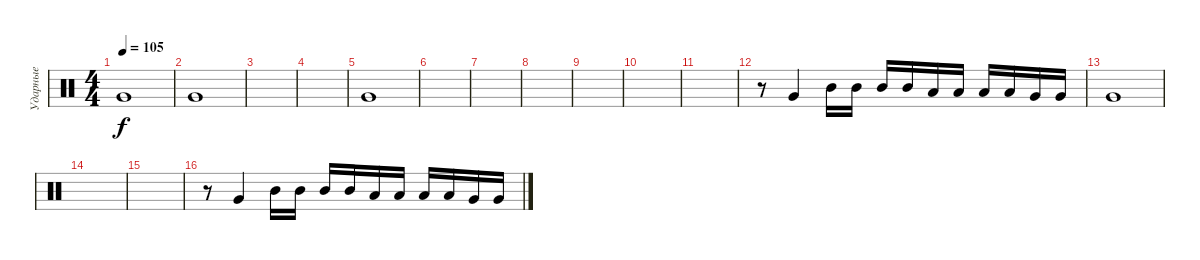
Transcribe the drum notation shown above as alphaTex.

\track ("Ударные" "Ударные") {instrument percussion}
\staff {score}
\articulation defaults
\ts (4 4)
\tempo 105
\clef neutral
\ks c "Very Low Tom (hit)".1{dy f}
|
"Very Low Tom (hit)".1 |
|
|
"Very Low Tom (hit)".1 |
|
|
|
|
|
|
r.8 "Very Low Tom (hit)".4 "Mid Tom (hit)".16 "Mid Tom (hit)".16 "Mid Tom (hit)".16 "Mid Tom (hit)".16 "Low Tom (hit)".16 "Low Tom (hit)".16 "Low Tom (hit)".16 "Low Tom (hit)".16 "Very Low Tom (hit)".16 "Very Low Tom (hit)".16 |
"Very Low Tom (hit)".1 |
|
|
r.8 "Very Low Tom (hit)".4 "Mid Tom (hit)".16 "Mid Tom (hit)".16 "Mid Tom (hit)".16 "Mid Tom (hit)".16 "Low Tom (hit)".16 "Low Tom (hit)".16 "Low Tom (hit)".16 "Low Tom (hit)".16 "Very Low Tom (hit)".16 "Very Low Tom (hit)".16
